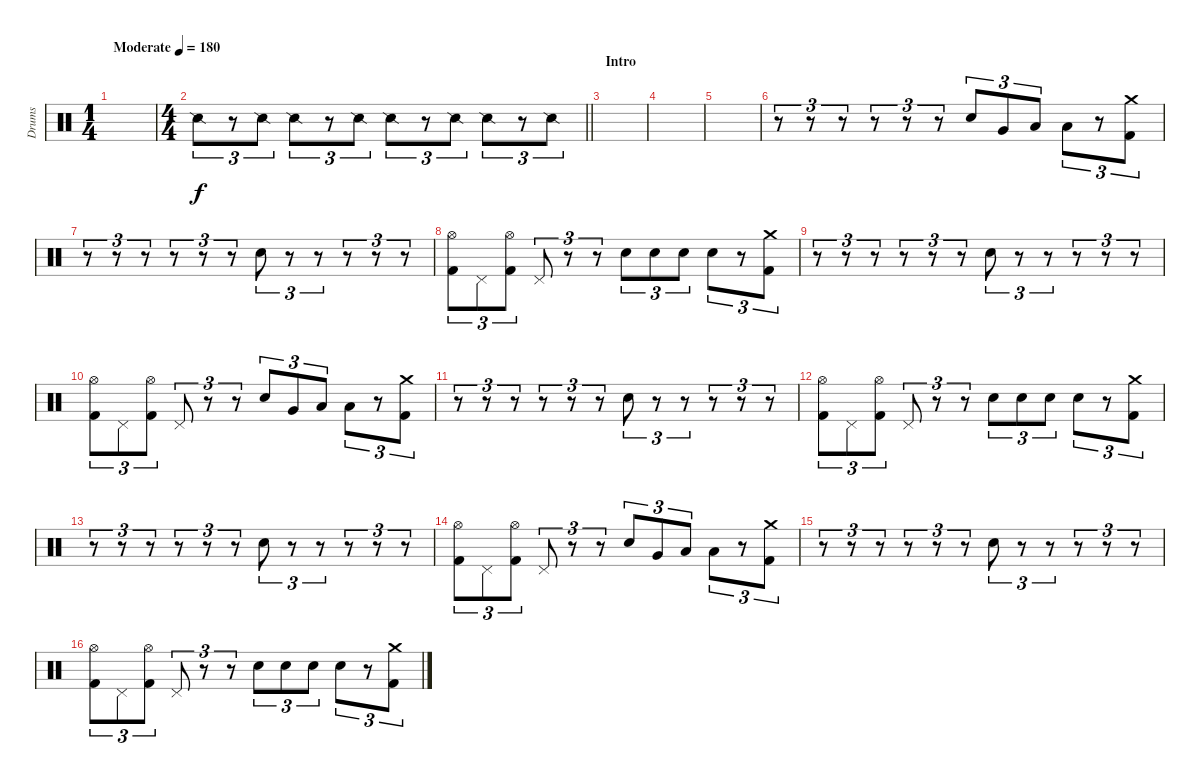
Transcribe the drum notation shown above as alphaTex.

\track ("Drums" "Drums") {instrument percussion}
\staff {score}
\articulation defaults
\ts (1 4)
\tempo (180 "Moderate")
\clef neutral
\ks c
|
\ts (4 4)
\barLineRight lightlight "Snare (side stick) 2".8{tu (3 2)}
r.8{tu (3 2)} "Snare (side stick) 2".8{tu (3 2)} "Snare (side stick) 2".8{tu (3 2)} r.8{tu (3 2)} "Snare (side stick) 2".8{tu (3 2)} "Snare (side stick) 2".8{tu (3 2)} r.8{tu (3 2)} "Snare (side stick) 2".8{tu (3 2)} "Snare (side stick) 2".8{tu (3 2)} r.8{tu (3 2)} "Snare (side stick) 2".8{tu (3 2)} |
\section ("" "Intro")
|
|
|
r.8{tu (3 2)} r.8{tu (3 2)} r.8{tu (3 2)} r.8{tu (3 2)} r.8{tu (3 2)} r.8{tu (3 2)} "Snare (hit) 2".8{tu (3 2)} "Very Low Tom (hit)".8{tu (3 2)} "Low Tom (hit)".8{tu (3 2)} "Low Floor Tom (hit)".8{tu (3 2)} r.8{tu (3 2)} ("Crash medium (hit)" "Kick (hit) 2").8{tu (3 2)} |
r.8{tu (3 2)} r.8{tu (3 2)} r.8{tu (3 2)} r.8{tu (3 2)} r.8{tu (3 2)} r.8{tu (3 2)} "Snare (hit) 2".8{tu (3 2)} r.8{tu (3 2)} r.8{tu (3 2)} r.8{tu (3 2)} r.8{tu (3 2)} r.8{tu (3 2)} |
("Hi-Hat (open)" "Kick (hit) 2").8{tu (3 2)} "Pedal Hi-Hat (hit)".8{tu (3 2)} ("Hi-Hat (open)" "Kick (hit) 2").8{tu (3 2)} "Pedal Hi-Hat (hit)".8{tu (3 2)} r.8{tu (3 2)} r.8{tu (3 2)} "Snare (hit) 2".8{tu (3 2)} "Snare (hit) 2".8{tu (3 2)} "Snare (hit) 2".8{tu (3 2)} "Snare (hit) 2".8{tu (3 2)} r.8{tu (3 2)} ("Crash medium (hit)" "Kick (hit) 2").8{tu (3 2)} |
r.8{tu (3 2)} r.8{tu (3 2)} r.8{tu (3 2)} r.8{tu (3 2)} r.8{tu (3 2)} r.8{tu (3 2)} "Snare (hit) 2".8{tu (3 2)} r.8{tu (3 2)} r.8{tu (3 2)} r.8{tu (3 2)} r.8{tu (3 2)} r.8{tu (3 2)} |
("Hi-Hat (open)" "Kick (hit) 2").8{tu (3 2)} "Pedal Hi-Hat (hit)".8{tu (3 2)} ("Hi-Hat (open)" "Kick (hit) 2").8{tu (3 2)} "Pedal Hi-Hat (hit)".8{tu (3 2)} r.8{tu (3 2)} r.8{tu (3 2)} "Snare (hit) 2".8{tu (3 2)} "Very Low Tom (hit)".8{tu (3 2)} "Low Tom (hit)".8{tu (3 2)} "Low Floor Tom (hit)".8{tu (3 2)} r.8{tu (3 2)} ("Crash medium (hit)" "Kick (hit) 2").8{tu (3 2)} |
r.8{tu (3 2)} r.8{tu (3 2)} r.8{tu (3 2)} r.8{tu (3 2)} r.8{tu (3 2)} r.8{tu (3 2)} "Snare (hit) 2".8{tu (3 2)} r.8{tu (3 2)} r.8{tu (3 2)} r.8{tu (3 2)} r.8{tu (3 2)} r.8{tu (3 2)} |
("Hi-Hat (open)" "Kick (hit) 2").8{tu (3 2)} "Pedal Hi-Hat (hit)".8{tu (3 2)} ("Hi-Hat (open)" "Kick (hit) 2").8{tu (3 2)} "Pedal Hi-Hat (hit)".8{tu (3 2)} r.8{tu (3 2)} r.8{tu (3 2)} "Snare (hit) 2".8{tu (3 2)} "Snare (hit) 2".8{tu (3 2)} "Snare (hit) 2".8{tu (3 2)} "Snare (hit) 2".8{tu (3 2)} r.8{tu (3 2)} ("Crash medium (hit)" "Kick (hit) 2").8{tu (3 2)} |
r.8{tu (3 2)} r.8{tu (3 2)} r.8{tu (3 2)} r.8{tu (3 2)} r.8{tu (3 2)} r.8{tu (3 2)} "Snare (hit) 2".8{tu (3 2)} r.8{tu (3 2)} r.8{tu (3 2)} r.8{tu (3 2)} r.8{tu (3 2)} r.8{tu (3 2)} |
("Hi-Hat (open)" "Kick (hit) 2").8{tu (3 2)} "Pedal Hi-Hat (hit)".8{tu (3 2)} ("Hi-Hat (open)" "Kick (hit) 2").8{tu (3 2)} "Pedal Hi-Hat (hit)".8{tu (3 2)} r.8{tu (3 2)} r.8{tu (3 2)} "Snare (hit) 2".8{tu (3 2)} "Very Low Tom (hit)".8{tu (3 2)} "Low Tom (hit)".8{tu (3 2)} "Low Floor Tom (hit)".8{tu (3 2)} r.8{tu (3 2)} ("Crash medium (hit)" "Kick (hit) 2").8{tu (3 2)} |
r.8{tu (3 2)} r.8{tu (3 2)} r.8{tu (3 2)} r.8{tu (3 2)} r.8{tu (3 2)} r.8{tu (3 2)} "Snare (hit) 2".8{tu (3 2)} r.8{tu (3 2)} r.8{tu (3 2)} r.8{tu (3 2)} r.8{tu (3 2)} r.8{tu (3 2)} |
("Hi-Hat (open)" "Kick (hit) 2").8{tu (3 2)} "Pedal Hi-Hat (hit)".8{tu (3 2)} ("Hi-Hat (open)" "Kick (hit) 2").8{tu (3 2)} "Pedal Hi-Hat (hit)".8{tu (3 2)} r.8{tu (3 2)} r.8{tu (3 2)} "Snare (hit) 2".8{tu (3 2)} "Snare (hit) 2".8{tu (3 2)} "Snare (hit) 2".8{tu (3 2)} "Snare (hit) 2".8{tu (3 2)} r.8{tu (3 2)} ("Crash medium (hit)" "Kick (hit) 2").8{tu (3 2)}
